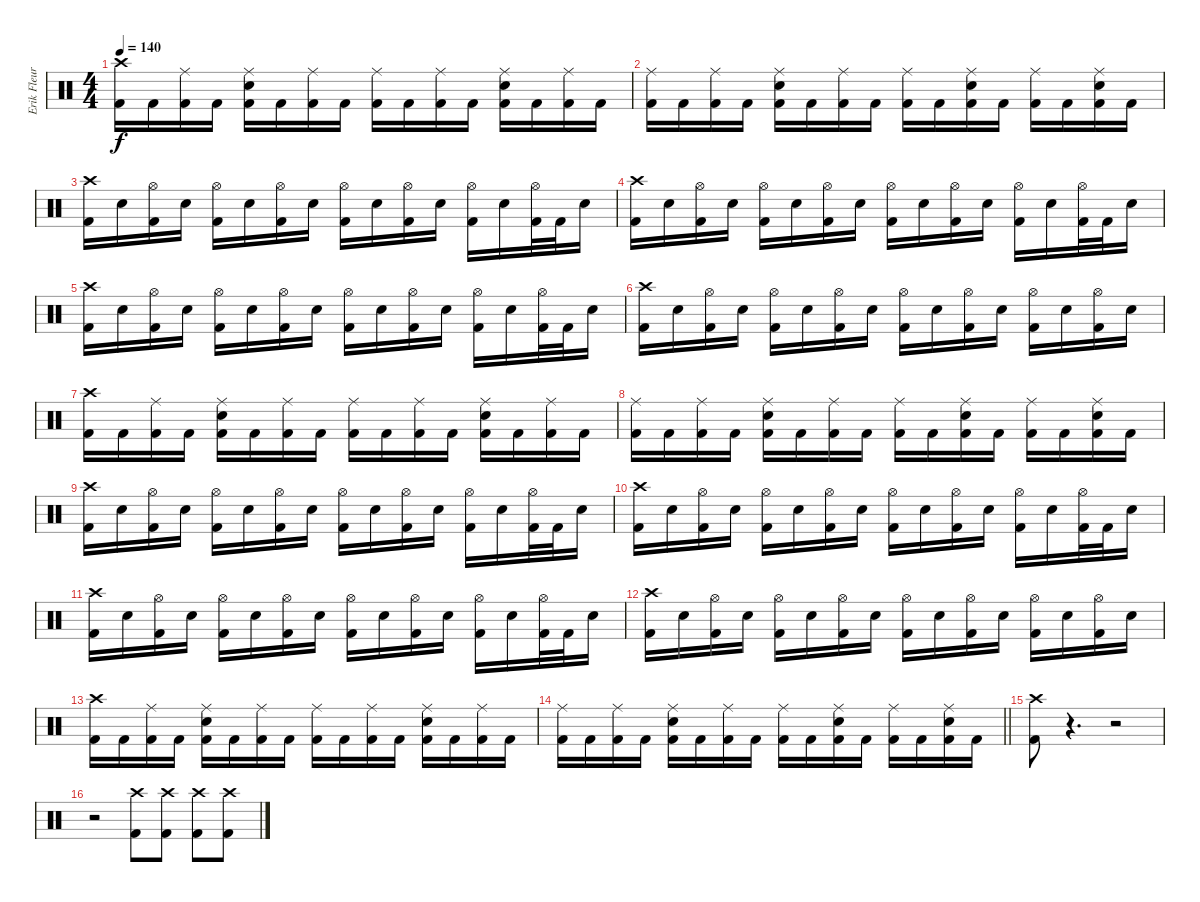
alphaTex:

\track ("Erik Fleuren" "Erik Fleur") {instrument percussion}
\staff {score}
\articulation defaults
\ts (4 4)
\tempo 140
\clef neutral
\ks c
("Crash high (hit)" "Kick (hit) 2").16{dy f} "Kick (hit) 2".16 ("Ride (middle)" "Kick (hit) 2").16 "Kick (hit) 2".16 ("Ride (middle)" "Electric Snare (hit)" "Kick (hit) 2").16 "Kick (hit) 2".16 ("Ride (middle)" "Kick (hit) 2").16 "Kick (hit) 2".16 ("Ride (middle)" "Kick (hit) 2").16 "Kick (hit) 2".16 ("Ride (middle)" "Kick (hit) 2").16 "Kick (hit) 2".16 ("Ride (middle)" "Electric Snare (hit)" "Kick (hit) 2").16 "Kick (hit) 2".16 ("Ride (middle)" "Kick (hit) 2").16 "Kick (hit) 2".16 |
("Ride (middle)" "Kick (hit) 2").16 "Kick (hit) 2".16 ("Ride (middle)" "Kick (hit) 2").16 "Kick (hit) 2".16 ("Ride (middle)" "Electric Snare (hit)" "Kick (hit) 2").16 "Kick (hit) 2".16 ("Ride (middle)" "Kick (hit) 2").16 "Kick (hit) 2".16 ("Ride (middle)" "Kick (hit) 2").16 "Kick (hit) 2".16 ("Ride (middle)" "Electric Snare (hit)" "Kick (hit) 2").16 "Kick (hit) 2".16 ("Ride (middle)" "Kick (hit) 2").16 "Kick (hit) 2".16 ("Ride (middle)" "Electric Snare (hit)" "Kick (hit) 2").16 "Kick (hit) 2".16 |
("Crash high (hit)" "Kick (hit) 2").16 "Electric Snare (hit)".16 ("Hi-Hat (open)" "Kick (hit) 2").16 "Electric Snare (hit)".16 ("Hi-Hat (open)" "Kick (hit) 2").16 "Electric Snare (hit)".16 ("Hi-Hat (open)" "Kick (hit) 2").16 "Electric Snare (hit)".16 ("Hi-Hat (open)" "Kick (hit) 2").16 "Electric Snare (hit)".16 ("Hi-Hat (open)" "Kick (hit) 2").16 "Electric Snare (hit)".16 ("Hi-Hat (open)" "Kick (hit) 2").16 "Electric Snare (hit)".16 ("Hi-Hat (open)" "Kick (hit) 2").32 "Kick (hit) 2".32 "Electric Snare (hit)".16 |
("Crash high (hit)" "Kick (hit) 2").16 "Electric Snare (hit)".16 ("Hi-Hat (open)" "Kick (hit) 2").16 "Electric Snare (hit)".16 ("Hi-Hat (open)" "Kick (hit) 2").16 "Electric Snare (hit)".16 ("Hi-Hat (open)" "Kick (hit) 2").16 "Electric Snare (hit)".16 ("Hi-Hat (open)" "Kick (hit) 2").16 "Electric Snare (hit)".16 ("Hi-Hat (open)" "Kick (hit) 2").16 "Electric Snare (hit)".16 ("Hi-Hat (open)" "Kick (hit) 2").16 "Electric Snare (hit)".16 ("Hi-Hat (open)" "Kick (hit) 2").32 "Kick (hit) 2".32 "Electric Snare (hit)".16 |
("Crash high (hit)" "Kick (hit) 2").16 "Electric Snare (hit)".16 ("Hi-Hat (open)" "Kick (hit) 2").16 "Electric Snare (hit)".16 ("Hi-Hat (open)" "Kick (hit) 2").16 "Electric Snare (hit)".16 ("Hi-Hat (open)" "Kick (hit) 2").16 "Electric Snare (hit)".16 ("Hi-Hat (open)" "Kick (hit) 2").16 "Electric Snare (hit)".16 ("Hi-Hat (open)" "Kick (hit) 2").16 "Electric Snare (hit)".16 ("Hi-Hat (open)" "Kick (hit) 2").16 "Electric Snare (hit)".16 ("Hi-Hat (open)" "Kick (hit) 2").32 "Kick (hit) 2".32 "Electric Snare (hit)".16 |
("Crash high (hit)" "Kick (hit) 2").16 "Electric Snare (hit)".16 ("Hi-Hat (open)" "Kick (hit) 2").16 "Electric Snare (hit)".16 ("Hi-Hat (open)" "Kick (hit) 2").16 "Electric Snare (hit)".16 ("Hi-Hat (open)" "Kick (hit) 2").16 "Electric Snare (hit)".16 ("Hi-Hat (open)" "Kick (hit) 2").16 "Electric Snare (hit)".16 ("Hi-Hat (open)" "Kick (hit) 2").16 "Electric Snare (hit)".16 ("Hi-Hat (open)" "Kick (hit) 2").16 "Electric Snare (hit)".16 ("Hi-Hat (open)" "Kick (hit) 2").16 "Electric Snare (hit)".16 |
("Crash high (hit)" "Kick (hit) 2").16 "Kick (hit) 2".16 ("Ride (middle)" "Kick (hit) 2").16 "Kick (hit) 2".16 ("Ride (middle)" "Electric Snare (hit)" "Kick (hit) 2").16 "Kick (hit) 2".16 ("Ride (middle)" "Kick (hit) 2").16 "Kick (hit) 2".16 ("Ride (middle)" "Kick (hit) 2").16 "Kick (hit) 2".16 ("Ride (middle)" "Kick (hit) 2").16 "Kick (hit) 2".16 ("Ride (middle)" "Electric Snare (hit)" "Kick (hit) 2").16 "Kick (hit) 2".16 ("Ride (middle)" "Kick (hit) 2").16 "Kick (hit) 2".16 |
("Ride (middle)" "Kick (hit) 2").16 "Kick (hit) 2".16 ("Ride (middle)" "Kick (hit) 2").16 "Kick (hit) 2".16 ("Ride (middle)" "Electric Snare (hit)" "Kick (hit) 2").16 "Kick (hit) 2".16 ("Ride (middle)" "Kick (hit) 2").16 "Kick (hit) 2".16 ("Ride (middle)" "Kick (hit) 2").16 "Kick (hit) 2".16 ("Ride (middle)" "Electric Snare (hit)" "Kick (hit) 2").16 "Kick (hit) 2".16 ("Ride (middle)" "Kick (hit) 2").16 "Kick (hit) 2".16 ("Ride (middle)" "Electric Snare (hit)" "Kick (hit) 2").16 "Kick (hit) 2".16 |
("Crash high (hit)" "Kick (hit) 2").16 "Electric Snare (hit)".16 ("Hi-Hat (open)" "Kick (hit) 2").16 "Electric Snare (hit)".16 ("Hi-Hat (open)" "Kick (hit) 2").16 "Electric Snare (hit)".16 ("Hi-Hat (open)" "Kick (hit) 2").16 "Electric Snare (hit)".16 ("Hi-Hat (open)" "Kick (hit) 2").16 "Electric Snare (hit)".16 ("Hi-Hat (open)" "Kick (hit) 2").16 "Electric Snare (hit)".16 ("Hi-Hat (open)" "Kick (hit) 2").16 "Electric Snare (hit)".16 ("Hi-Hat (open)" "Kick (hit) 2").32 "Kick (hit) 2".32 "Electric Snare (hit)".16 |
("Crash high (hit)" "Kick (hit) 2").16 "Electric Snare (hit)".16 ("Hi-Hat (open)" "Kick (hit) 2").16 "Electric Snare (hit)".16 ("Hi-Hat (open)" "Kick (hit) 2").16 "Electric Snare (hit)".16 ("Hi-Hat (open)" "Kick (hit) 2").16 "Electric Snare (hit)".16 ("Hi-Hat (open)" "Kick (hit) 2").16 "Electric Snare (hit)".16 ("Hi-Hat (open)" "Kick (hit) 2").16 "Electric Snare (hit)".16 ("Hi-Hat (open)" "Kick (hit) 2").16 "Electric Snare (hit)".16 ("Hi-Hat (open)" "Kick (hit) 2").32 "Kick (hit) 2".32 "Electric Snare (hit)".16 |
("Crash high (hit)" "Kick (hit) 2").16 "Electric Snare (hit)".16 ("Hi-Hat (open)" "Kick (hit) 2").16 "Electric Snare (hit)".16 ("Hi-Hat (open)" "Kick (hit) 2").16 "Electric Snare (hit)".16 ("Hi-Hat (open)" "Kick (hit) 2").16 "Electric Snare (hit)".16 ("Hi-Hat (open)" "Kick (hit) 2").16 "Electric Snare (hit)".16 ("Hi-Hat (open)" "Kick (hit) 2").16 "Electric Snare (hit)".16 ("Hi-Hat (open)" "Kick (hit) 2").16 "Electric Snare (hit)".16 ("Hi-Hat (open)" "Kick (hit) 2").32 "Kick (hit) 2".32 "Electric Snare (hit)".16 |
("Crash high (hit)" "Kick (hit) 2").16 "Electric Snare (hit)".16 ("Hi-Hat (open)" "Kick (hit) 2").16 "Electric Snare (hit)".16 ("Hi-Hat (open)" "Kick (hit) 2").16 "Electric Snare (hit)".16 ("Hi-Hat (open)" "Kick (hit) 2").16 "Electric Snare (hit)".16 ("Hi-Hat (open)" "Kick (hit) 2").16 "Electric Snare (hit)".16 ("Hi-Hat (open)" "Kick (hit) 2").16 "Electric Snare (hit)".16 ("Hi-Hat (open)" "Kick (hit) 2").16 "Electric Snare (hit)".16 ("Hi-Hat (open)" "Kick (hit) 2").16 "Electric Snare (hit)".16 |
("Crash high (hit)" "Kick (hit) 2").16 "Kick (hit) 2".16 ("Ride (middle)" "Kick (hit) 2").16 "Kick (hit) 2".16 ("Ride (middle)" "Electric Snare (hit)" "Kick (hit) 2").16 "Kick (hit) 2".16 ("Ride (middle)" "Kick (hit) 2").16 "Kick (hit) 2".16 ("Ride (middle)" "Kick (hit) 2").16 "Kick (hit) 2".16 ("Ride (middle)" "Kick (hit) 2").16 "Kick (hit) 2".16 ("Ride (middle)" "Electric Snare (hit)" "Kick (hit) 2").16 "Kick (hit) 2".16 ("Ride (middle)" "Kick (hit) 2").16 "Kick (hit) 2".16 |
\barLineRight lightlight
("Ride (middle)" "Kick (hit) 2").16 "Kick (hit) 2".16 ("Ride (middle)" "Kick (hit) 2").16 "Kick (hit) 2".16 ("Ride (middle)" "Electric Snare (hit)" "Kick (hit) 2").16 "Kick (hit) 2".16 ("Ride (middle)" "Kick (hit) 2").16 "Kick (hit) 2".16 ("Ride (middle)" "Kick (hit) 2").16 "Kick (hit) 2".16 ("Ride (middle)" "Electric Snare (hit)" "Kick (hit) 2").16 "Kick (hit) 2".16 ("Ride (middle)" "Kick (hit) 2").16 "Kick (hit) 2".16 ("Ride (middle)" "Electric Snare (hit)" "Kick (hit) 2").16 "Kick (hit) 2".16 |
("Crash high (hit)" "Kick (hit) 2").8 r.4{d volume 0} r.2 |
r.2 ("Crash high (hit)" "Kick (hit) 2").8{volume 13} ("Crash high (hit)" "Kick (hit) 2").8 ("Crash high (hit)" "Kick (hit) 2").8 ("Crash high (hit)" "Kick (hit) 2").8
